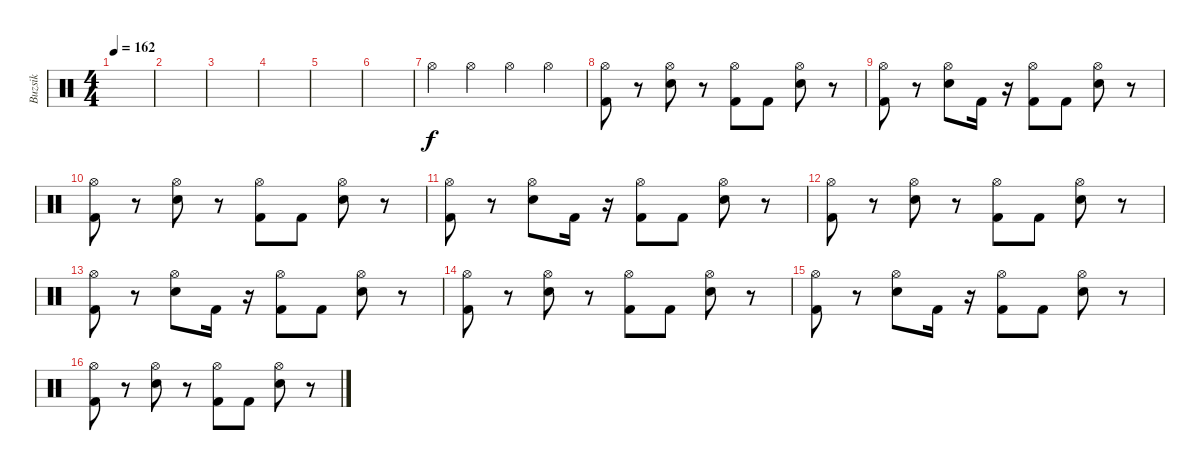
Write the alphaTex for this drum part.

\track ("Buzsik" "Buzsik") {instrument percussion}
\staff {score}
\articulation defaults
\ts (4 4)
\tempo 162
\clef neutral
\ks c
|
|
|
|
|
|
"Hi-Hat (open)".4 "Hi-Hat (open)".4 "Hi-Hat (open)".4 "Hi-Hat (open)".4 |
("Hi-Hat (open)" "Kick (hit) 2").8 r.8 ("Hi-Hat (open)" "Electric Snare (hit)").8 r.8 ("Hi-Hat (open)" "Kick (hit) 2").8 "Kick (hit) 2".8 ("Hi-Hat (open)" "Electric Snare (hit)").8 r.8 |
("Hi-Hat (open)" "Kick (hit) 2").8 r.8 ("Hi-Hat (open)" "Electric Snare (hit)").8 "Kick (hit) 2".16 r.16 ("Hi-Hat (open)" "Kick (hit) 2").8 "Kick (hit) 2".8 ("Hi-Hat (open)" "Electric Snare (hit)").8 r.8 |
("Hi-Hat (open)" "Kick (hit) 2").8 r.8 ("Hi-Hat (open)" "Electric Snare (hit)").8 r.8 ("Hi-Hat (open)" "Kick (hit) 2").8 "Kick (hit) 2".8 ("Hi-Hat (open)" "Electric Snare (hit)").8 r.8 |
("Hi-Hat (open)" "Kick (hit) 2").8 r.8 ("Hi-Hat (open)" "Electric Snare (hit)").8 "Kick (hit) 2".16 r.16 ("Hi-Hat (open)" "Kick (hit) 2").8 "Kick (hit) 2".8 ("Hi-Hat (open)" "Electric Snare (hit)").8 r.8 |
("Hi-Hat (open)" "Kick (hit) 2").8 r.8 ("Hi-Hat (open)" "Electric Snare (hit)").8 r.8 ("Hi-Hat (open)" "Kick (hit) 2").8 "Kick (hit) 2".8 ("Hi-Hat (open)" "Electric Snare (hit)").8 r.8 |
("Hi-Hat (open)" "Kick (hit) 2").8 r.8 ("Hi-Hat (open)" "Electric Snare (hit)").8 "Kick (hit) 2".16 r.16 ("Hi-Hat (open)" "Kick (hit) 2").8 "Kick (hit) 2".8 ("Hi-Hat (open)" "Electric Snare (hit)").8 r.8 |
("Hi-Hat (open)" "Kick (hit) 2").8 r.8 ("Hi-Hat (open)" "Electric Snare (hit)").8 r.8 ("Hi-Hat (open)" "Kick (hit) 2").8 "Kick (hit) 2".8 ("Hi-Hat (open)" "Electric Snare (hit)").8 r.8 |
("Hi-Hat (open)" "Kick (hit) 2").8 r.8 ("Hi-Hat (open)" "Electric Snare (hit)").8 "Kick (hit) 2".16 r.16 ("Hi-Hat (open)" "Kick (hit) 2").8 "Kick (hit) 2".8 ("Hi-Hat (open)" "Electric Snare (hit)").8 r.8 |
("Hi-Hat (open)" "Kick (hit) 2").8 r.8 ("Hi-Hat (open)" "Electric Snare (hit)").8 r.8 ("Hi-Hat (open)" "Kick (hit) 2").8 "Kick (hit) 2".8 ("Hi-Hat (open)" "Electric Snare (hit)").8 r.8
